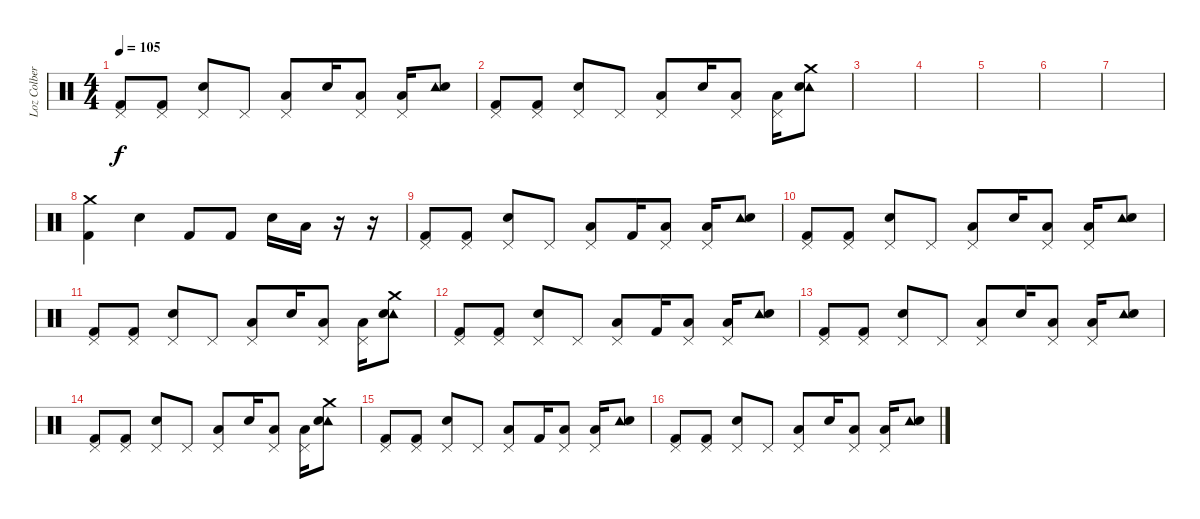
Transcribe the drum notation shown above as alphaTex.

\track ("Loz Colbert" "Loz Colber") {instrument percussion}
\staff {score}
\articulation defaults
\ts (4 4)
\tempo 105
\clef neutral
\ks c
("Pedal Hi-Hat (hit)" "Kick (hit) 2").8{dy f} ("Pedal Hi-Hat (hit)" "Kick (hit) 2").8 ("Pedal Hi-Hat (hit)" "Snare (hit) 2").8 "Pedal Hi-Hat (hit)".8 ("Pedal Hi-Hat (hit)" "Low Tom (hit)").8 "Snare (hit) 2".16 ("Pedal Hi-Hat (hit)" "Low Tom (hit)").8 ("Pedal Hi-Hat (hit)" "Low Tom (hit)").16 ("Tambourine (hit)" "Snare (hit) 2").8 |
("Pedal Hi-Hat (hit)" "Kick (hit) 2").8 ("Pedal Hi-Hat (hit)" "Kick (hit) 2").8 ("Pedal Hi-Hat (hit)" "Snare (hit) 2").8 "Pedal Hi-Hat (hit)".8 ("Pedal Hi-Hat (hit)" "Low Tom (hit)").8 "Snare (hit) 2".16 ("Pedal Hi-Hat (hit)" "Low Tom (hit)").8 ("Pedal Hi-Hat (hit)" "Low Tom (hit)").16 ("Tambourine (hit)" "Crash medium (hit)" "Snare (hit) 2").8 |
|
|
|
|
|
("Crash medium (hit)" "Kick (hit) 2").4 "Snare (hit) 2".4 "Kick (hit) 2".8 "Kick (hit) 2".8 "Snare (hit) 2".16 "Low Tom (hit)".16 r.16 r.16 |
("Pedal Hi-Hat (hit)" "Kick (hit) 2").8 ("Pedal Hi-Hat (hit)" "Kick (hit) 2").8 ("Pedal Hi-Hat (hit)" "Snare (hit) 2").8 "Pedal Hi-Hat (hit)".8 ("Pedal Hi-Hat (hit)" "Low Tom (hit)").8 "Kick (hit) 2".16 ("Pedal Hi-Hat (hit)" "Low Tom (hit)").8 ("Pedal Hi-Hat (hit)" "Low Tom (hit)").16 ("Tambourine (hit)" "Snare (hit) 2").8 |
("Pedal Hi-Hat (hit)" "Kick (hit) 2").8 ("Pedal Hi-Hat (hit)" "Kick (hit) 2").8 ("Pedal Hi-Hat (hit)" "Snare (hit) 2").8 "Pedal Hi-Hat (hit)".8 ("Pedal Hi-Hat (hit)" "Low Tom (hit)").8 "Snare (hit) 2".16 ("Pedal Hi-Hat (hit)" "Low Tom (hit)").8 ("Pedal Hi-Hat (hit)" "Low Tom (hit)").16 ("Tambourine (hit)" "Snare (hit) 2").8 |
("Pedal Hi-Hat (hit)" "Kick (hit) 2").8 ("Pedal Hi-Hat (hit)" "Kick (hit) 2").8 ("Pedal Hi-Hat (hit)" "Snare (hit) 2").8 "Pedal Hi-Hat (hit)".8 ("Pedal Hi-Hat (hit)" "Low Tom (hit)").8 "Snare (hit) 2".16 ("Pedal Hi-Hat (hit)" "Low Tom (hit)").8 ("Pedal Hi-Hat (hit)" "Low Tom (hit)").16 ("Tambourine (hit)" "Crash medium (hit)" "Snare (hit) 2").8 |
("Pedal Hi-Hat (hit)" "Kick (hit) 2").8 ("Pedal Hi-Hat (hit)" "Kick (hit) 2").8 ("Pedal Hi-Hat (hit)" "Snare (hit) 2").8 "Pedal Hi-Hat (hit)".8 ("Pedal Hi-Hat (hit)" "Low Tom (hit)").8 "Kick (hit) 2".16 ("Pedal Hi-Hat (hit)" "Low Tom (hit)").8 ("Pedal Hi-Hat (hit)" "Low Tom (hit)").16 ("Tambourine (hit)" "Snare (hit) 2").8 |
("Pedal Hi-Hat (hit)" "Kick (hit) 2").8 ("Pedal Hi-Hat (hit)" "Kick (hit) 2").8 ("Pedal Hi-Hat (hit)" "Snare (hit) 2").8 "Pedal Hi-Hat (hit)".8 ("Pedal Hi-Hat (hit)" "Low Tom (hit)").8 "Snare (hit) 2".16 ("Pedal Hi-Hat (hit)" "Low Tom (hit)").8 ("Pedal Hi-Hat (hit)" "Low Tom (hit)").16 ("Tambourine (hit)" "Snare (hit) 2").8 |
("Pedal Hi-Hat (hit)" "Kick (hit) 2").8 ("Pedal Hi-Hat (hit)" "Kick (hit) 2").8 ("Pedal Hi-Hat (hit)" "Snare (hit) 2").8 "Pedal Hi-Hat (hit)".8 ("Pedal Hi-Hat (hit)" "Low Tom (hit)").8 "Snare (hit) 2".16 ("Pedal Hi-Hat (hit)" "Low Tom (hit)").8 ("Pedal Hi-Hat (hit)" "Low Tom (hit)").16 ("Tambourine (hit)" "Crash medium (hit)" "Snare (hit) 2").8 |
("Pedal Hi-Hat (hit)" "Kick (hit) 2").8 ("Pedal Hi-Hat (hit)" "Kick (hit) 2").8 ("Pedal Hi-Hat (hit)" "Snare (hit) 2").8 "Pedal Hi-Hat (hit)".8 ("Pedal Hi-Hat (hit)" "Low Tom (hit)").8 "Kick (hit) 2".16 ("Pedal Hi-Hat (hit)" "Low Tom (hit)").8 ("Pedal Hi-Hat (hit)" "Low Tom (hit)").16 ("Tambourine (hit)" "Snare (hit) 2").8 |
("Pedal Hi-Hat (hit)" "Kick (hit) 2").8 ("Pedal Hi-Hat (hit)" "Kick (hit) 2").8 ("Pedal Hi-Hat (hit)" "Snare (hit) 2").8 "Pedal Hi-Hat (hit)".8 ("Pedal Hi-Hat (hit)" "Low Tom (hit)").8 "Snare (hit) 2".16 ("Pedal Hi-Hat (hit)" "Low Tom (hit)").8 ("Pedal Hi-Hat (hit)" "Low Tom (hit)").16 ("Tambourine (hit)" "Snare (hit) 2").8
